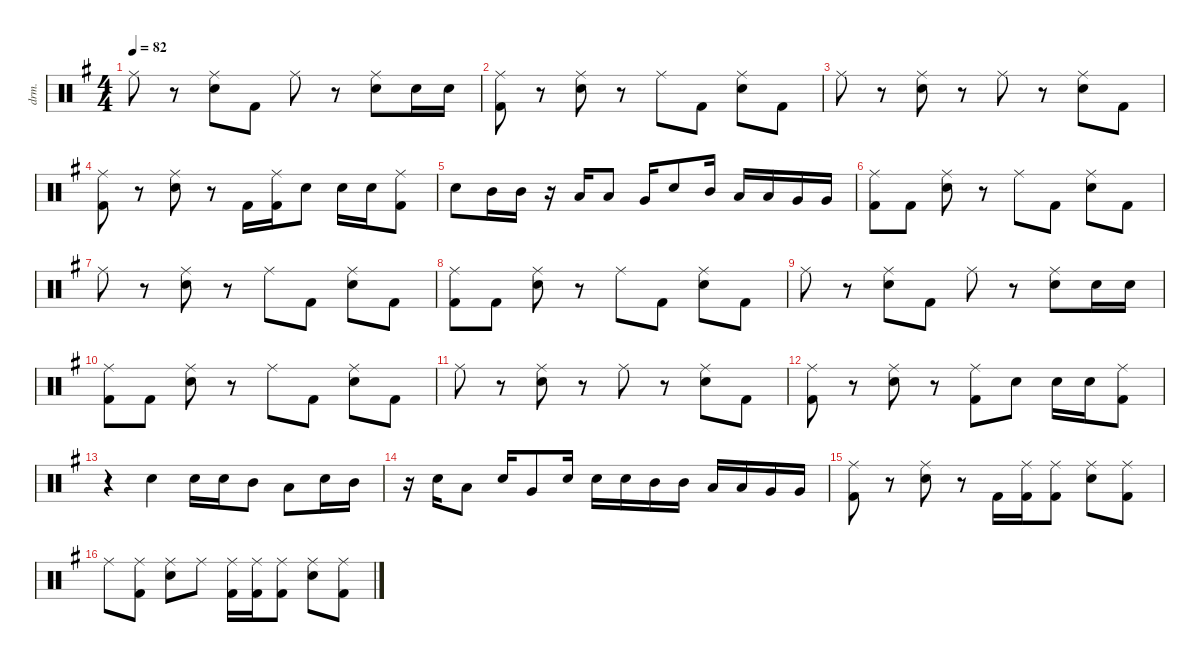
\defaultSystemsLayout 4
\hideDynamics
\bracketExtendMode nobrackets
\track ("Drums" "drm.") {instrument percussion}
\staff {score}
\articulation defaults
\ts (4 4)
\tempo 82
\clef neutral
\ks eminor "Ride (middle)"{acc forcenatural}.8{dy f}
r.8 ("Ride (middle)"{acc forcenatural} "Snare (hit) 2"{acc forcenatural}).8 "Kick (hit) 2"{acc forcenatural}.8 "Ride (middle)"{acc forcenatural}.8 r.8 ("Ride (middle)"{acc forcenatural} "Snare (hit) 2"{acc forcenatural}).8 "Snare (hit) 2"{acc forcenatural}.16 "Snare (hit) 2"{acc forcenatural}.16 |
("Ride (middle)"{acc forcenatural} "Kick (hit) 2"{acc forcenatural}).8 r.8 ("Ride (middle)"{acc forcenatural} "Snare (hit) 2"{acc forcenatural}).8 r.8 "Ride (middle)"{acc forcenatural}.8 "Kick (hit) 2"{acc forcenatural}.8 ("Ride (middle)"{acc forcenatural} "Snare (hit) 2"{acc forcenatural}).8 "Kick (hit) 2"{acc forcenatural}.8 |
"Ride (middle)"{acc forcenatural}.8 r.8 ("Ride (middle)"{acc forcenatural} "Snare (hit) 2"{acc forcenatural}).8 r.8 "Ride (middle)"{acc forcenatural}.8 r.8 ("Ride (middle)"{acc forcenatural} "Snare (hit) 2"{acc forcenatural}).8 "Kick (hit) 2"{acc forcenatural}.8 |
("Ride (middle)"{acc forcenatural} "Kick (hit) 2"{acc forcenatural}).8 r.8 ("Ride (middle)"{acc forcenatural} "Snare (hit) 2"{acc forcenatural}).8 r.8 "Kick (hit) 2"{acc forcenatural}.16 ("Ride (middle)"{acc forcenatural} "Kick (hit) 2"{acc forcenatural}).16 "Snare (hit) 2"{acc forcenatural}.8 "Snare (hit) 2"{acc forcenatural}.16 "Snare (hit) 2"{acc forcenatural}.16 ("Ride (middle)"{acc forcenatural} "Kick (hit) 2"{acc forcenatural}).8 |
"Snare (hit) 2"{acc forcenatural}.8 "Mid Tom (hit)"{acc forcenatural}.16 "Mid Tom (hit)"{acc forcenatural}.16 r.16 "Low Tom (hit)"{acc forcenatural}.16 "Low Tom (hit)"{acc forcenatural}.8 "Very Low Tom (hit)"{acc forcenatural}.16 "Snare (hit) 2"{acc forcenatural}.8 "Mid Tom (hit)"{acc forcenatural}.16 "Low Tom (hit)"{acc forcenatural}.16 "Low Tom (hit)"{acc forcenatural}.16 "Very Low Tom (hit)"{acc forcenatural}.16 "Very Low Tom (hit)"{acc forcenatural}.16 |
("Ride (middle)"{acc forcenatural} "Kick (hit) 2"{acc forcenatural}).8 "Kick (hit) 2"{acc forcenatural}.8 ("Ride (middle)"{acc forcenatural} "Snare (hit) 2"{acc forcenatural}).8 r.8 "Ride (middle)"{acc forcenatural}.8 "Kick (hit) 2"{acc forcenatural}.8 ("Ride (middle)"{acc forcenatural} "Snare (hit) 2"{acc forcenatural}).8 "Kick (hit) 2"{acc forcenatural}.8 |
"Ride (middle)"{acc forcenatural}.8 r.8 ("Ride (middle)"{acc forcenatural} "Snare (hit) 2"{acc forcenatural}).8 r.8 "Ride (middle)"{acc forcenatural}.8 "Kick (hit) 2"{acc forcenatural}.8 ("Ride (middle)"{acc forcenatural} "Snare (hit) 2"{acc forcenatural}).8 "Kick (hit) 2"{acc forcenatural}.8 |
("Ride (middle)"{acc forcenatural} "Kick (hit) 2"{acc forcenatural}).8 "Kick (hit) 2"{acc forcenatural}.8 ("Ride (middle)"{acc forcenatural} "Snare (hit) 2"{acc forcenatural}).8 r.8 "Ride (middle)"{acc forcenatural}.8 "Kick (hit) 2"{acc forcenatural}.8 ("Ride (middle)"{acc forcenatural} "Snare (hit) 2"{acc forcenatural}).8 "Kick (hit) 2"{acc forcenatural}.8 |
"Ride (middle)"{acc forcenatural}.8 r.8 ("Ride (middle)"{acc forcenatural} "Snare (hit) 2"{acc forcenatural}).8 "Kick (hit) 2"{acc forcenatural}.8 "Ride (middle)"{acc forcenatural}.8 r.8 ("Ride (middle)"{acc forcenatural} "Snare (hit) 2"{acc forcenatural}).8 "Snare (hit) 2"{acc forcenatural}.16 "Snare (hit) 2"{acc forcenatural}.16 |
("Ride (middle)"{acc forcenatural} "Kick (hit) 2"{acc forcenatural}).8 "Kick (hit) 2"{acc forcenatural}.8 ("Ride (middle)"{acc forcenatural} "Snare (hit) 2"{acc forcenatural}).8 r.8 "Ride (middle)"{acc forcenatural}.8 "Kick (hit) 2"{acc forcenatural}.8 ("Ride (middle)"{acc forcenatural} "Snare (hit) 2"{acc forcenatural}).8 "Kick (hit) 2"{acc forcenatural}.8 |
"Ride (middle)"{acc forcenatural}.8 r.8 ("Ride (middle)"{acc forcenatural} "Snare (hit) 2"{acc forcenatural}).8 r.8 "Ride (middle)"{acc forcenatural}.8 r.8 ("Ride (middle)"{acc forcenatural} "Snare (hit) 2"{acc forcenatural}).8 "Kick (hit) 2"{acc forcenatural}.8 |
("Ride (middle)"{acc forcenatural} "Kick (hit) 2"{acc forcenatural}).8 r.8 ("Ride (middle)"{acc forcenatural} "Snare (hit) 2"{acc forcenatural}).8 r.8 ("Ride (middle)"{acc forcenatural} "Kick (hit) 2"{acc forcenatural}).8 "Snare (hit) 2"{acc forcenatural}.8 "Snare (hit) 2"{acc forcenatural}.16 "Snare (hit) 2"{acc forcenatural}.16 ("Ride (middle)"{acc forcenatural} "Kick (hit) 2"{acc forcenatural}).8 |
r.4 "Snare (hit) 2"{acc forcenatural}.4 "Snare (hit) 2"{acc forcenatural}.16 "Snare (hit) 2"{acc forcenatural}.16 "Mid Tom (hit)"{acc forcenatural}.8 "Low Tom (hit)"{acc forcenatural}.8 "Snare (hit) 2"{acc forcenatural}.16 "Mid Tom (hit)"{acc forcenatural}.16 |
r.16 "Snare (hit) 2"{acc forcenatural}.16 "Low Tom (hit)"{acc forcenatural}.8 "Snare (hit) 2"{acc forcenatural}.16 "Very Low Tom (hit)"{acc forcenatural}.8 "Snare (hit) 2"{acc forcenatural}.16 "Snare (hit) 2"{acc forcenatural}.16 "Snare (hit) 2"{acc forcenatural}.16 "Mid Tom (hit)"{acc forcenatural}.16 "Mid Tom (hit)"{acc forcenatural}.16 "Low Tom (hit)"{acc forcenatural}.16 "Low Tom (hit)"{acc forcenatural}.16 "Very Low Tom (hit)"{acc forcenatural}.16 "Very Low Tom (hit)"{acc forcenatural}.16 |
("Ride (middle)"{acc forcenatural} "Kick (hit) 2"{acc forcenatural}).8 r.8 ("Ride (middle)"{acc forcenatural} "Snare (hit) 2"{acc forcenatural}).8 r.8 "Kick (hit) 2"{acc forcenatural}.16 ("Ride (middle)"{acc forcenatural} "Kick (hit) 2"{acc forcenatural}).16 ("Ride (middle)"{acc forcenatural} "Kick (hit) 2"{acc forcenatural}).8 ("Ride (middle)"{acc forcenatural} "Snare (hit) 2"{acc forcenatural}).8 ("Ride (middle)"{acc forcenatural} "Kick (hit) 2"{acc forcenatural}).8 |
"Ride (middle)"{acc forcenatural}.8 ("Ride (middle)"{acc forcenatural} "Kick (hit) 2"{acc forcenatural}).8 ("Ride (middle)"{acc forcenatural} "Snare (hit) 2"{acc forcenatural}).8 "Ride (middle)"{acc forcenatural}.8 ("Ride (middle)"{acc forcenatural} "Kick (hit) 2"{acc forcenatural}).16 ("Ride (middle)"{acc forcenatural} "Kick (hit) 2"{acc forcenatural}).16 ("Ride (middle)"{acc forcenatural} "Kick (hit) 2"{acc forcenatural}).8 ("Ride (middle)"{acc forcenatural} "Snare (hit) 2"{acc forcenatural}).8 ("Ride (middle)"{acc forcenatural} "Kick (hit) 2"{acc forcenatural}).8
